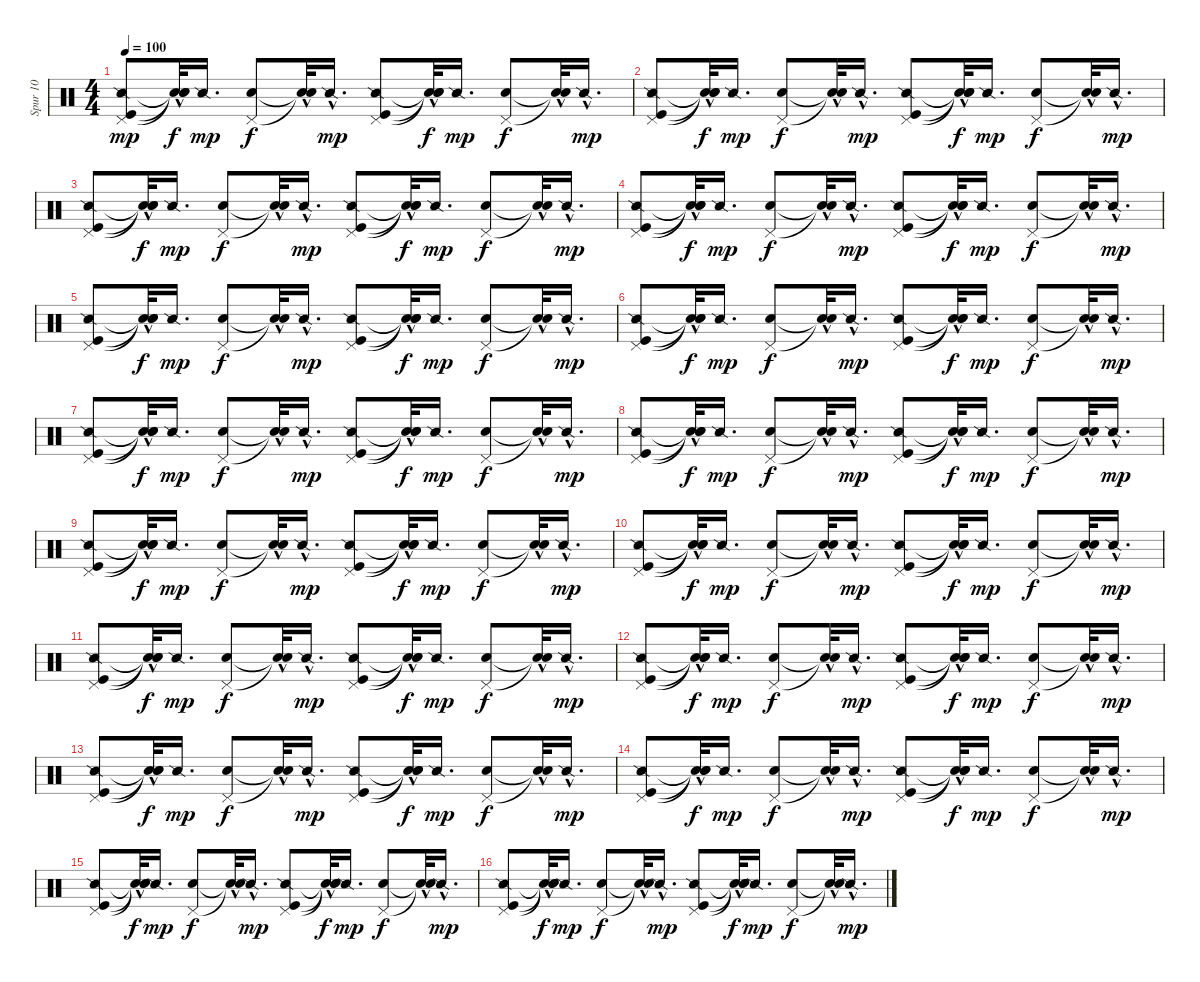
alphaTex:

\track ("Spur 10" "Spur 10") {instrument percussion}
\staff {score}
\articulation defaults
\ts (4 4)
\tempo 100
\clef neutral
\ks c
("Snare (side stick) 2" "Kick (hit)" "Pedal Hi-Hat (hit)").8{dy mp} ("Snare (hit)"{t} "Snare (hit)"{hac t} "Snare (hit)"{t}).32{dy f} "Snare (side stick) 2".16{d dy mp} ("Electric Snare (hit)" "Pedal Hi-Hat (hit)").8{dy f} ("Snare (hit)"{hac t} "Snare (hit)"{t}).32 "Snare (side stick) 2"{hac}.16{d dy mp} ("Snare (side stick) 2" "Kick (hit)" "Pedal Hi-Hat (hit)").8 ("Snare (hit)"{t} "Snare (hit)"{hac t} "Snare (hit)"{t}).32{dy f} "Snare (side stick) 2".16{d dy mp} ("Electric Snare (hit)" "Pedal Hi-Hat (hit)").8{dy f} ("Snare (hit)"{hac t} "Snare (hit)"{t}).32 "Snare (side stick) 2"{hac}.16{d dy mp} |
("Snare (side stick) 2" "Kick (hit)" "Pedal Hi-Hat (hit)").8 ("Snare (hit)"{t} "Snare (hit)"{hac t} "Snare (hit)"{t}).32{dy f} "Snare (side stick) 2".16{d dy mp} ("Electric Snare (hit)" "Pedal Hi-Hat (hit)").8{dy f} ("Snare (hit)"{hac t} "Snare (hit)"{t}).32 "Snare (side stick) 2"{hac}.16{d dy mp} ("Snare (side stick) 2" "Kick (hit)" "Pedal Hi-Hat (hit)").8 ("Snare (hit)"{t} "Snare (hit)"{hac t} "Snare (hit)"{t}).32{dy f} "Snare (side stick) 2".16{d dy mp} ("Electric Snare (hit)" "Pedal Hi-Hat (hit)").8{dy f} ("Snare (hit)"{hac t} "Snare (hit)"{t}).32 "Snare (side stick) 2"{hac}.16{d dy mp} |
("Snare (side stick) 2" "Kick (hit)" "Pedal Hi-Hat (hit)").8 ("Snare (hit)"{t} "Snare (hit)"{hac t} "Snare (hit)"{t}).32{dy f} "Snare (side stick) 2".16{d dy mp} ("Electric Snare (hit)" "Pedal Hi-Hat (hit)").8{dy f} ("Snare (hit)"{hac t} "Snare (hit)"{t}).32 "Snare (side stick) 2"{hac}.16{d dy mp} ("Snare (side stick) 2" "Kick (hit)" "Pedal Hi-Hat (hit)").8 ("Snare (hit)"{t} "Snare (hit)"{hac t} "Snare (hit)"{t}).32{dy f} "Snare (side stick) 2".16{d dy mp} ("Electric Snare (hit)" "Pedal Hi-Hat (hit)").8{dy f} ("Snare (hit)"{hac t} "Snare (hit)"{t}).32 "Snare (side stick) 2"{hac}.16{d dy mp} |
("Snare (side stick) 2" "Kick (hit)" "Pedal Hi-Hat (hit)").8 ("Snare (hit)"{t} "Snare (hit)"{hac t} "Snare (hit)"{t}).32{dy f} "Snare (side stick) 2".16{d dy mp} ("Electric Snare (hit)" "Pedal Hi-Hat (hit)").8{dy f} ("Snare (hit)"{hac t} "Snare (hit)"{t}).32 "Snare (side stick) 2"{hac}.16{d dy mp} ("Snare (side stick) 2" "Kick (hit)" "Pedal Hi-Hat (hit)").8 ("Snare (hit)"{t} "Snare (hit)"{hac t} "Snare (hit)"{t}).32{dy f} "Snare (side stick) 2".16{d dy mp} ("Electric Snare (hit)" "Pedal Hi-Hat (hit)").8{dy f} ("Snare (hit)"{hac t} "Snare (hit)"{t}).32 "Snare (side stick) 2"{hac}.16{d dy mp} |
("Snare (side stick) 2" "Kick (hit)" "Pedal Hi-Hat (hit)").8 ("Snare (hit)"{t} "Snare (hit)"{hac t} "Snare (hit)"{t}).32{dy f} "Snare (side stick) 2".16{d dy mp} ("Electric Snare (hit)" "Pedal Hi-Hat (hit)").8{dy f} ("Snare (hit)"{hac t} "Snare (hit)"{t}).32 "Snare (side stick) 2"{hac}.16{d dy mp} ("Snare (side stick) 2" "Kick (hit)" "Pedal Hi-Hat (hit)").8 ("Snare (hit)"{t} "Snare (hit)"{hac t} "Snare (hit)"{t}).32{dy f} "Snare (side stick) 2".16{d dy mp} ("Electric Snare (hit)" "Pedal Hi-Hat (hit)").8{dy f} ("Snare (hit)"{hac t} "Snare (hit)"{t}).32 "Snare (side stick) 2"{hac}.16{d dy mp} |
("Snare (side stick) 2" "Kick (hit)" "Pedal Hi-Hat (hit)").8 ("Snare (hit)"{t} "Snare (hit)"{hac t} "Snare (hit)"{t}).32{dy f} "Snare (side stick) 2".16{d dy mp} ("Electric Snare (hit)" "Pedal Hi-Hat (hit)").8{dy f} ("Snare (hit)"{hac t} "Snare (hit)"{t}).32 "Snare (side stick) 2"{hac}.16{d dy mp} ("Snare (side stick) 2" "Kick (hit)" "Pedal Hi-Hat (hit)").8 ("Snare (hit)"{t} "Snare (hit)"{hac t} "Snare (hit)"{t}).32{dy f} "Snare (side stick) 2".16{d dy mp} ("Electric Snare (hit)" "Pedal Hi-Hat (hit)").8{dy f} ("Snare (hit)"{hac t} "Snare (hit)"{t}).32 "Snare (side stick) 2"{hac}.16{d dy mp} |
("Snare (side stick) 2" "Kick (hit)" "Pedal Hi-Hat (hit)").8 ("Snare (hit)"{t} "Snare (hit)"{hac t} "Snare (hit)"{t}).32{dy f} "Snare (side stick) 2".16{d dy mp} ("Electric Snare (hit)" "Pedal Hi-Hat (hit)").8{dy f} ("Snare (hit)"{hac t} "Snare (hit)"{t}).32 "Snare (side stick) 2"{hac}.16{d dy mp} ("Snare (side stick) 2" "Kick (hit)" "Pedal Hi-Hat (hit)").8 ("Snare (hit)"{t} "Snare (hit)"{hac t} "Snare (hit)"{t}).32{dy f} "Snare (side stick) 2".16{d dy mp} ("Electric Snare (hit)" "Pedal Hi-Hat (hit)").8{dy f} ("Snare (hit)"{hac t} "Snare (hit)"{t}).32 "Snare (side stick) 2"{hac}.16{d dy mp} |
("Snare (side stick) 2" "Kick (hit)" "Pedal Hi-Hat (hit)").8 ("Snare (hit)"{t} "Snare (hit)"{hac t} "Snare (hit)"{t}).32{dy f} "Snare (side stick) 2".16{d dy mp} ("Electric Snare (hit)" "Pedal Hi-Hat (hit)").8{dy f} ("Snare (hit)"{hac t} "Snare (hit)"{t}).32 "Snare (side stick) 2"{hac}.16{d dy mp} ("Snare (side stick) 2" "Kick (hit)" "Pedal Hi-Hat (hit)").8 ("Snare (hit)"{t} "Snare (hit)"{hac t} "Snare (hit)"{t}).32{dy f} "Snare (side stick) 2".16{d dy mp} ("Electric Snare (hit)" "Pedal Hi-Hat (hit)").8{dy f} ("Snare (hit)"{hac t} "Snare (hit)"{t}).32 "Snare (side stick) 2"{hac}.16{d dy mp} |
("Snare (side stick) 2" "Kick (hit)" "Pedal Hi-Hat (hit)").8 ("Snare (hit)"{t} "Snare (hit)"{hac t} "Snare (hit)"{t}).32{dy f} "Snare (side stick) 2".16{d dy mp} ("Electric Snare (hit)" "Pedal Hi-Hat (hit)").8{dy f} ("Snare (hit)"{hac t} "Snare (hit)"{t}).32 "Snare (side stick) 2"{hac}.16{d dy mp} ("Snare (side stick) 2" "Kick (hit)" "Pedal Hi-Hat (hit)").8 ("Snare (hit)"{t} "Snare (hit)"{hac t} "Snare (hit)"{t}).32{dy f} "Snare (side stick) 2".16{d dy mp} ("Electric Snare (hit)" "Pedal Hi-Hat (hit)").8{dy f} ("Snare (hit)"{hac t} "Snare (hit)"{t}).32 "Snare (side stick) 2"{hac}.16{d dy mp} |
("Snare (side stick) 2" "Kick (hit)" "Pedal Hi-Hat (hit)").8 ("Snare (hit)"{t} "Snare (hit)"{hac t} "Snare (hit)"{t}).32{dy f} "Snare (side stick) 2".16{d dy mp} ("Electric Snare (hit)" "Pedal Hi-Hat (hit)").8{dy f} ("Snare (hit)"{hac t} "Snare (hit)"{t}).32 "Snare (side stick) 2"{hac}.16{d dy mp} ("Snare (side stick) 2" "Kick (hit)" "Pedal Hi-Hat (hit)").8 ("Snare (hit)"{t} "Snare (hit)"{hac t} "Snare (hit)"{t}).32{dy f} "Snare (side stick) 2".16{d dy mp} ("Electric Snare (hit)" "Pedal Hi-Hat (hit)").8{dy f} ("Snare (hit)"{hac t} "Snare (hit)"{t}).32 "Snare (side stick) 2"{hac}.16{d dy mp} |
("Snare (side stick) 2" "Kick (hit)" "Pedal Hi-Hat (hit)").8 ("Snare (hit)"{t} "Snare (hit)"{hac t} "Snare (hit)"{t}).32{dy f} "Snare (side stick) 2".16{d dy mp} ("Electric Snare (hit)" "Pedal Hi-Hat (hit)").8{dy f} ("Snare (hit)"{hac t} "Snare (hit)"{t}).32 "Snare (side stick) 2"{hac}.16{d dy mp} ("Snare (side stick) 2" "Kick (hit)" "Pedal Hi-Hat (hit)").8 ("Snare (hit)"{t} "Snare (hit)"{hac t} "Snare (hit)"{t}).32{dy f} "Snare (side stick) 2".16{d dy mp} ("Electric Snare (hit)" "Pedal Hi-Hat (hit)").8{dy f} ("Snare (hit)"{hac t} "Snare (hit)"{t}).32 "Snare (side stick) 2"{hac}.16{d dy mp} |
("Snare (side stick) 2" "Kick (hit)" "Pedal Hi-Hat (hit)").8 ("Snare (hit)"{t} "Snare (hit)"{hac t} "Snare (hit)"{t}).32{dy f} "Snare (side stick) 2".16{d dy mp} ("Electric Snare (hit)" "Pedal Hi-Hat (hit)").8{dy f} ("Snare (hit)"{hac t} "Snare (hit)"{t}).32 "Snare (side stick) 2"{hac}.16{d dy mp} ("Snare (side stick) 2" "Kick (hit)" "Pedal Hi-Hat (hit)").8 ("Snare (hit)"{t} "Snare (hit)"{hac t} "Snare (hit)"{t}).32{dy f} "Snare (side stick) 2".16{d dy mp} ("Electric Snare (hit)" "Pedal Hi-Hat (hit)").8{dy f} ("Snare (hit)"{hac t} "Snare (hit)"{t}).32 "Snare (side stick) 2"{hac}.16{d dy mp} |
("Snare (side stick) 2" "Kick (hit)" "Pedal Hi-Hat (hit)").8 ("Snare (hit)"{t} "Snare (hit)"{hac t} "Snare (hit)"{t}).32{dy f} "Snare (side stick) 2".16{d dy mp} ("Electric Snare (hit)" "Pedal Hi-Hat (hit)").8{dy f} ("Snare (hit)"{hac t} "Snare (hit)"{t}).32 "Snare (side stick) 2"{hac}.16{d dy mp} ("Snare (side stick) 2" "Kick (hit)" "Pedal Hi-Hat (hit)").8 ("Snare (hit)"{t} "Snare (hit)"{hac t} "Snare (hit)"{t}).32{dy f} "Snare (side stick) 2".16{d dy mp} ("Electric Snare (hit)" "Pedal Hi-Hat (hit)").8{dy f} ("Snare (hit)"{hac t} "Snare (hit)"{t}).32 "Snare (side stick) 2"{hac}.16{d dy mp} |
("Snare (side stick) 2" "Kick (hit)" "Pedal Hi-Hat (hit)").8 ("Snare (hit)"{t} "Snare (hit)"{hac t} "Snare (hit)"{t}).32{dy f} "Snare (side stick) 2".16{d dy mp} ("Electric Snare (hit)" "Pedal Hi-Hat (hit)").8{dy f} ("Snare (hit)"{hac t} "Snare (hit)"{t}).32 "Snare (side stick) 2"{hac}.16{d dy mp} ("Snare (side stick) 2" "Kick (hit)" "Pedal Hi-Hat (hit)").8 ("Snare (hit)"{t} "Snare (hit)"{hac t} "Snare (hit)"{t}).32{dy f} "Snare (side stick) 2".16{d dy mp} ("Electric Snare (hit)" "Pedal Hi-Hat (hit)").8{dy f} ("Snare (hit)"{hac t} "Snare (hit)"{t}).32 "Snare (side stick) 2"{hac}.16{d dy mp} |
("Snare (side stick) 2" "Kick (hit)" "Pedal Hi-Hat (hit)").8 ("Snare (hit)"{t} "Snare (hit)"{hac t} "Snare (hit)"{t}).32{dy f} "Snare (side stick) 2".16{d dy mp} ("Electric Snare (hit)" "Pedal Hi-Hat (hit)").8{dy f} ("Snare (hit)"{hac t} "Snare (hit)"{t}).32 "Snare (side stick) 2"{hac}.16{d dy mp} ("Snare (side stick) 2" "Kick (hit)" "Pedal Hi-Hat (hit)").8 ("Snare (hit)"{t} "Snare (hit)"{hac t} "Snare (hit)"{t}).32{dy f} "Snare (side stick) 2".16{d dy mp} ("Electric Snare (hit)" "Pedal Hi-Hat (hit)").8{dy f} ("Snare (hit)"{hac t} "Snare (hit)"{t}).32 "Snare (side stick) 2"{hac}.16{d dy mp} |
("Snare (side stick) 2" "Kick (hit)" "Pedal Hi-Hat (hit)").8 ("Snare (hit)"{t} "Snare (hit)"{hac t} "Snare (hit)"{t}).32{dy f} "Snare (side stick) 2".16{d dy mp} ("Electric Snare (hit)" "Pedal Hi-Hat (hit)").8{dy f} ("Snare (hit)"{hac t} "Snare (hit)"{t}).32 "Snare (side stick) 2"{hac}.16{d dy mp} ("Snare (side stick) 2" "Kick (hit)" "Pedal Hi-Hat (hit)").8 ("Snare (hit)"{t} "Snare (hit)"{hac t} "Snare (hit)"{t}).32{dy f} "Snare (side stick) 2".16{d dy mp} ("Electric Snare (hit)" "Pedal Hi-Hat (hit)").8{dy f} ("Snare (hit)"{hac t} "Snare (hit)"{t}).32 "Snare (side stick) 2"{hac}.16{d dy mp}
